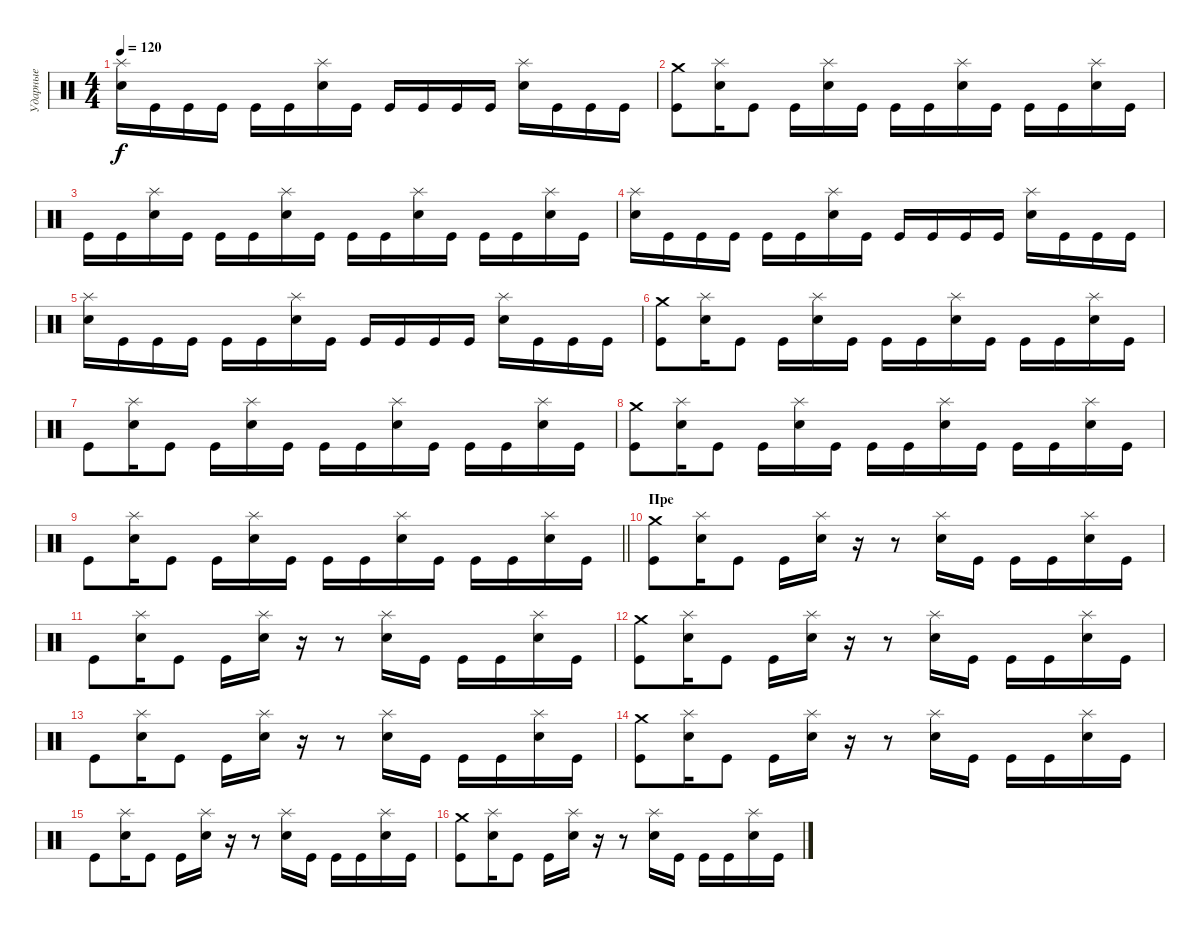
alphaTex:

\track ("Ударные" "Ударные") {instrument percussion}
\staff {score}
\articulation defaults
\ts (4 4)
\tempo 120
\clef neutral
\ks c
("Splash (hit)" "Electric Snare (hit)").16{dy f} "Kick (hit)".16 "Kick (hit)".16 "Kick (hit)".16 "Kick (hit)".16 "Kick (hit)".16 ("Splash (hit)" "Electric Snare (hit)").16 "Kick (hit)".16 "Kick (hit)".16 "Kick (hit)".16 "Kick (hit)".16 "Kick (hit)".16 ("Splash (hit)" "Electric Snare (hit)").16 "Kick (hit)".16 "Kick (hit)".16 "Kick (hit)".16 |
("Crash medium (hit)" "Kick (hit)").8 ("Splash (hit)" "Electric Snare (hit)").16 "Kick (hit)".8 "Kick (hit)".16 ("Splash (hit)" "Electric Snare (hit)").16 "Kick (hit)".16 "Kick (hit)".16 "Kick (hit)".16 ("Splash (hit)" "Electric Snare (hit)").16 "Kick (hit)".16 "Kick (hit)".16 "Kick (hit)".16 ("Splash (hit)" "Electric Snare (hit)").16 "Kick (hit)".16 |
"Kick (hit)".16 "Kick (hit)".16 ("Splash (hit)" "Electric Snare (hit)").16 "Kick (hit)".16 "Kick (hit)".16 "Kick (hit)".16 ("Splash (hit)" "Electric Snare (hit)").16 "Kick (hit)".16 "Kick (hit)".16 "Kick (hit)".16 ("Splash (hit)" "Electric Snare (hit)").16 "Kick (hit)".16 "Kick (hit)".16 "Kick (hit)".16 ("Splash (hit)" "Electric Snare (hit)").16 "Kick (hit)".16 |
("Splash (hit)" "Electric Snare (hit)").16 "Kick (hit)".16 "Kick (hit)".16 "Kick (hit)".16 "Kick (hit)".16 "Kick (hit)".16 ("Splash (hit)" "Electric Snare (hit)").16 "Kick (hit)".16 "Kick (hit)".16 "Kick (hit)".16 "Kick (hit)".16 "Kick (hit)".16 ("Splash (hit)" "Electric Snare (hit)").16 "Kick (hit)".16 "Kick (hit)".16 "Kick (hit)".16 |
("Splash (hit)" "Electric Snare (hit)").16 "Kick (hit)".16 "Kick (hit)".16 "Kick (hit)".16 "Kick (hit)".16 "Kick (hit)".16 ("Splash (hit)" "Electric Snare (hit)").16 "Kick (hit)".16 "Kick (hit)".16 "Kick (hit)".16 "Kick (hit)".16 "Kick (hit)".16 ("Splash (hit)" "Electric Snare (hit)").16 "Kick (hit)".16 "Kick (hit)".16 "Kick (hit)".16 |
("Crash medium (hit)" "Kick (hit)").8 ("Splash (hit)" "Electric Snare (hit)").16 "Kick (hit)".8 "Kick (hit)".16 ("Splash (hit)" "Electric Snare (hit)").16 "Kick (hit)".16 "Kick (hit)".16 "Kick (hit)".16 ("Splash (hit)" "Electric Snare (hit)").16 "Kick (hit)".16 "Kick (hit)".16 "Kick (hit)".16 ("Splash (hit)" "Electric Snare (hit)").16 "Kick (hit)".16 |
"Kick (hit)".8 ("Splash (hit)" "Electric Snare (hit)").16 "Kick (hit)".8 "Kick (hit)".16 ("Splash (hit)" "Electric Snare (hit)").16 "Kick (hit)".16 "Kick (hit)".16 "Kick (hit)".16 ("Splash (hit)" "Electric Snare (hit)").16 "Kick (hit)".16 "Kick (hit)".16 "Kick (hit)".16 ("Splash (hit)" "Electric Snare (hit)").16 "Kick (hit)".16 |
("Crash medium (hit)" "Kick (hit)").8 ("Splash (hit)" "Electric Snare (hit)").16 "Kick (hit)".8 "Kick (hit)".16 ("Splash (hit)" "Electric Snare (hit)").16 "Kick (hit)".16 "Kick (hit)".16 "Kick (hit)".16 ("Splash (hit)" "Electric Snare (hit)").16 "Kick (hit)".16 "Kick (hit)".16 "Kick (hit)".16 ("Splash (hit)" "Electric Snare (hit)").16 "Kick (hit)".16 |
\barLineRight lightlight "Kick (hit)".8
("Splash (hit)" "Electric Snare (hit)").16 "Kick (hit)".8 "Kick (hit)".16 ("Splash (hit)" "Electric Snare (hit)").16 "Kick (hit)".16 "Kick (hit)".16 "Kick (hit)".16 ("Splash (hit)" "Electric Snare (hit)").16 "Kick (hit)".16 "Kick (hit)".16 "Kick (hit)".16 ("Splash (hit)" "Electric Snare (hit)").16 "Kick (hit)".16 |
\section ("" "Пре")
("Crash medium (hit)" "Kick (hit)").8 ("Splash (hit)" "Electric Snare (hit)").16 "Kick (hit)".8 "Kick (hit)".16 ("Splash (hit)" "Electric Snare (hit)").16 r.16 r.8 ("Splash (hit)" "Electric Snare (hit)").16 "Kick (hit)".16 "Kick (hit)".16 "Kick (hit)".16 ("Splash (hit)" "Electric Snare (hit)").16 "Kick (hit)".16 |
"Kick (hit)".8 ("Splash (hit)" "Electric Snare (hit)").16 "Kick (hit)".8 "Kick (hit)".16 ("Splash (hit)" "Electric Snare (hit)").16 r.16 r.8 ("Splash (hit)" "Electric Snare (hit)").16 "Kick (hit)".16 "Kick (hit)".16 "Kick (hit)".16 ("Splash (hit)" "Electric Snare (hit)").16 "Kick (hit)".16 |
("Crash medium (hit)" "Kick (hit)").8 ("Splash (hit)" "Electric Snare (hit)").16 "Kick (hit)".8 "Kick (hit)".16 ("Splash (hit)" "Electric Snare (hit)").16 r.16 r.8 ("Splash (hit)" "Electric Snare (hit)").16 "Kick (hit)".16 "Kick (hit)".16 "Kick (hit)".16 ("Splash (hit)" "Electric Snare (hit)").16 "Kick (hit)".16 |
"Kick (hit)".8 ("Splash (hit)" "Electric Snare (hit)").16 "Kick (hit)".8 "Kick (hit)".16 ("Splash (hit)" "Electric Snare (hit)").16 r.16 r.8 ("Splash (hit)" "Electric Snare (hit)").16 "Kick (hit)".16 "Kick (hit)".16 "Kick (hit)".16 ("Splash (hit)" "Electric Snare (hit)").16 "Kick (hit)".16 |
("Crash medium (hit)" "Kick (hit)").8 ("Splash (hit)" "Electric Snare (hit)").16 "Kick (hit)".8 "Kick (hit)".16 ("Splash (hit)" "Electric Snare (hit)").16 r.16 r.8 ("Splash (hit)" "Electric Snare (hit)").16 "Kick (hit)".16 "Kick (hit)".16 "Kick (hit)".16 ("Splash (hit)" "Electric Snare (hit)").16 "Kick (hit)".16 |
"Kick (hit)".8 ("Splash (hit)" "Electric Snare (hit)").16 "Kick (hit)".8 "Kick (hit)".16 ("Splash (hit)" "Electric Snare (hit)").16 r.16 r.8 ("Splash (hit)" "Electric Snare (hit)").16 "Kick (hit)".16 "Kick (hit)".16 "Kick (hit)".16 ("Splash (hit)" "Electric Snare (hit)").16 "Kick (hit)".16 |
("Crash medium (hit)" "Kick (hit)").8 ("Splash (hit)" "Electric Snare (hit)").16 "Kick (hit)".8 "Kick (hit)".16 ("Splash (hit)" "Electric Snare (hit)").16 r.16 r.8 ("Splash (hit)" "Electric Snare (hit)").16 "Kick (hit)".16 "Kick (hit)".16 "Kick (hit)".16 ("Splash (hit)" "Electric Snare (hit)").16 "Kick (hit)".16
